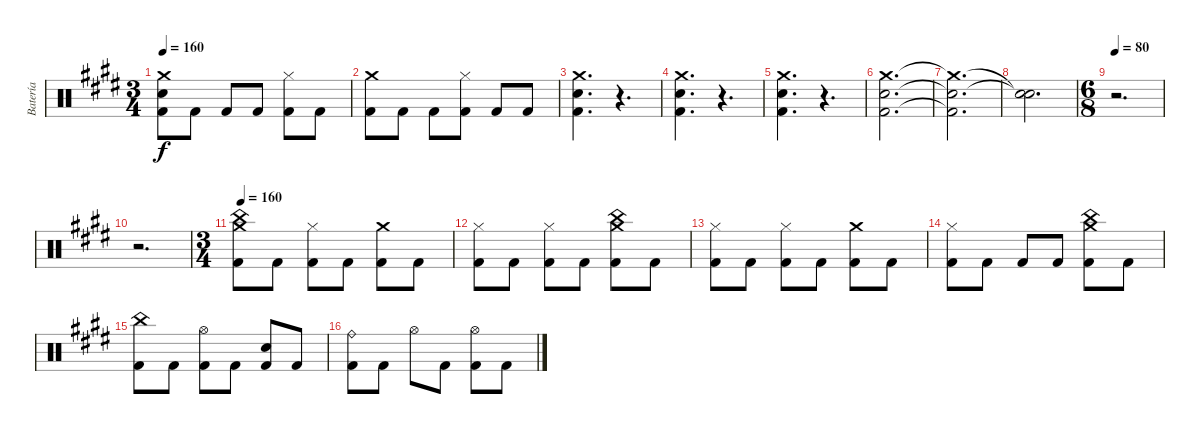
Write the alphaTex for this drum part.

\track ("Batería" "Batería") {instrument percussion}
\staff {score}
\articulation defaults
\ts (3 4)
\tempo 160
\clef neutral
\ks c#minor
("Crash medium (hit)" "Snare (hit) 2" "Kick (hit) 2").8{dy f} "Kick (hit) 2".8 "Kick (hit) 2".8 "Kick (hit) 2".8 ("Hi-Hat (closed)" "Kick (hit) 2").8 "Kick (hit) 2".8 |
("Crash medium (hit)" "Kick (hit) 2").8 "Kick (hit) 2".8 "Kick (hit) 2".8 ("Hi-Hat (closed)" "Kick (hit) 2").8 "Kick (hit) 2".8 "Kick (hit) 2".8 |
("Crash medium (hit)" "Snare (hit) 2" "Kick (hit) 2").4{d} r.4{d} |
("Crash medium (hit)" "Snare (hit) 2" "Kick (hit) 2").4{d} r.4{d} |
("Crash medium (hit)" "Snare (hit) 2" "Kick (hit) 2").4{d} r.4{d} |
("Crash medium (hit)" "Snare (hit) 2" "Kick (hit) 2").2{d} |
("Crash medium (hit)"{t} "Snare (hit) 2"{t} "Kick (hit) 2"{t}).2{d} |
("Snare (hit)"{t} "Snare (hit)"{t}).2{d} |
\ts (6 8)
\tempo 80
r.2{d} |
r.2{d} |
\ts (3 4)
\tempo 160
("Crash medium (hit)" "China (hit)" "Kick (hit) 2").8 "Kick (hit) 2".8 ("Hi-Hat (closed)" "Kick (hit) 2").8 "Kick (hit) 2".8 ("Crash medium (hit)" "Kick (hit) 2").8 "Kick (hit) 2".8 |
("Hi-Hat (closed)" "Kick (hit) 2").8 "Kick (hit) 2".8 ("Hi-Hat (closed)" "Kick (hit) 2").8 "Kick (hit) 2".8 ("Crash medium (hit)" "China (hit)" "Kick (hit) 2").8 "Kick (hit) 2".8 |
("Hi-Hat (closed)" "Kick (hit) 2").8 "Kick (hit) 2".8 ("Hi-Hat (closed)" "Kick (hit) 2").8 "Kick (hit) 2".8 ("Crash medium (hit)" "Kick (hit) 2").8 "Kick (hit) 2".8 |
("Hi-Hat (closed)" "Kick (hit) 2").8 "Kick (hit) 2".8 "Kick (hit) 2".8 "Kick (hit) 2".8 ("Crash medium (hit)" "China (hit)" "Kick (hit) 2").8 "Kick (hit) 2".8 |
("China (hit)" "Kick (hit) 2").8 "Kick (hit) 2".8 ("Hi-Hat (open)" "Kick (hit) 2").8 "Kick (hit) 2".8 ("Snare (hit) 2" "Kick (hit) 2").8 "Kick (hit) 2".8 |
("Ride (bell)" "Kick (hit) 2").8 "Kick (hit) 2".8 "Hi-Hat (open)".8 "Kick (hit) 2".8 ("Hi-Hat (open)" "Kick (hit) 2").8 "Kick (hit) 2".8
